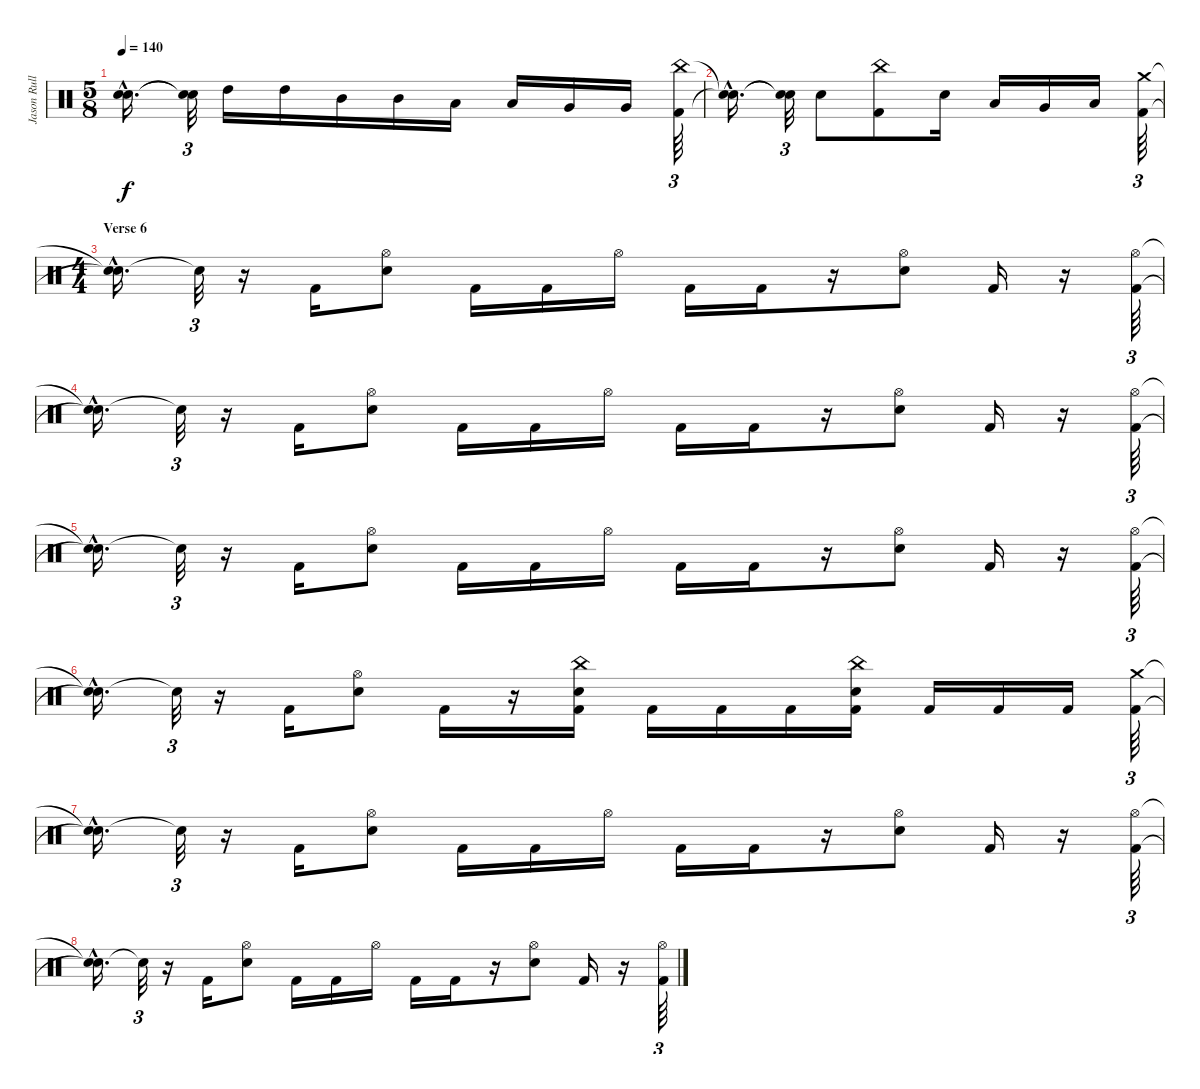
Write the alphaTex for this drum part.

\track ("Jason Rullo" "Jason Rull") {instrument percussion}
\staff {score}
\articulation defaults
\ts (5 8)
\tempo 140
\clef neutral
\ks c
("Snare (hit)"{hac t} "Snare (hit)"{hac t}).16{d dy f} ("Snare (hit)"{t} "Snare (hit)"{t}).32{tu (3 2)} "High Tom (hit)".16 "High Tom (hit)".16 "Mid Tom (hit)".16 "Mid Tom (hit)".16 "Low Tom (hit)".16 "Low Tom (hit)".16 "Very Low Tom (hit)".16 "Very Low Tom (hit)".16 ("China (hit)" "Kick (hit) 2").64{tu (3 2)} |
("Snare (hit)"{hac t} "Snare (hit)"{hac t}).16{d} ("Snare (hit)"{t} "Snare (hit)"{t}).32{tu (3 2)} "Electric Snare (hit)".8 ("China (hit)" "Kick (hit) 2").8 "Electric Snare (hit)".16 "Low Tom (hit)".16 "Very Low Tom (hit)".16 "Low Floor Tom (hit)".16 ("Crash medium (hit)" "Kick (hit) 2").64{tu (3 2)} |
\ts (4 4)
\section ("" "Verse 6")
("Snare (hit)"{hac t} "Snare (hit)"{hac t}).16{d} "Snare (hit)"{t}.32{tu (3 2)} r.16 "Kick (hit) 2".16 ("Hi-Hat (open)" "Electric Snare (hit)").8 "Kick (hit) 2".16 "Kick (hit) 2".16 "Hi-Hat (open)".16 "Kick (hit) 2".16 "Kick (hit) 2".16 r.16 ("Hi-Hat (open)" "Electric Snare (hit)").8 "Kick (hit) 2".16 r.16 ("Hi-Hat (open)" "Kick (hit) 2").64{tu (3 2)} |
("Snare (hit)"{hac t} "Snare (hit)"{hac t}).16{d} "Snare (hit)"{t}.32{tu (3 2)} r.16 "Kick (hit) 2".16 ("Hi-Hat (open)" "Electric Snare (hit)").8 "Kick (hit) 2".16 "Kick (hit) 2".16 "Hi-Hat (open)".16 "Kick (hit) 2".16 "Kick (hit) 2".16 r.16 ("Hi-Hat (open)" "Electric Snare (hit)").8 "Kick (hit) 2".16 r.16 ("Hi-Hat (open)" "Kick (hit) 2").64{tu (3 2)} |
("Snare (hit)"{hac t} "Snare (hit)"{hac t}).16{d} "Snare (hit)"{t}.32{tu (3 2)} r.16 "Kick (hit) 2".16 ("Hi-Hat (open)" "Electric Snare (hit)").8 "Kick (hit) 2".16 "Kick (hit) 2".16 "Hi-Hat (open)".16 "Kick (hit) 2".16 "Kick (hit) 2".16 r.16 ("Hi-Hat (open)" "Electric Snare (hit)").8 "Kick (hit) 2".16 r.16 ("Hi-Hat (open)" "Kick (hit) 2").64{tu (3 2)} |
("Snare (hit)"{hac t} "Snare (hit)"{hac t}).16{d} "Snare (hit)"{t}.32{tu (3 2)} r.16 "Kick (hit) 2".16 ("Hi-Hat (open)" "Electric Snare (hit)").8 "Kick (hit) 2".16 r.16 ("China (hit)" "Electric Snare (hit)" "Kick (hit) 2").16 "Kick (hit) 2".16 "Kick (hit) 2".16 "Kick (hit) 2".16 ("Kick (hit) 2" "China (hit)" "Electric Snare (hit)").16 "Kick (hit) 2".16 "Kick (hit) 2".16 "Kick (hit) 2".16 ("Crash medium (hit)" "Kick (hit) 2").64{tu (3 2)} |
("Snare (hit)"{hac t} "Snare (hit)"{hac t}).16{d} "Snare (hit)"{t}.32{tu (3 2)} r.16 "Kick (hit) 2".16 ("Hi-Hat (open)" "Electric Snare (hit)").8 "Kick (hit) 2".16 "Kick (hit) 2".16 "Hi-Hat (open)".16 "Kick (hit) 2".16 "Kick (hit) 2".16 r.16 ("Hi-Hat (open)" "Electric Snare (hit)").8 "Kick (hit) 2".16 r.16 ("Hi-Hat (open)" "Kick (hit) 2").64{tu (3 2)} |
("Snare (hit)"{hac t} "Snare (hit)"{hac t}).16{d} "Snare (hit)"{t}.32{tu (3 2)} r.16 "Kick (hit) 2".16 ("Hi-Hat (open)" "Electric Snare (hit)").8 "Kick (hit) 2".16 "Kick (hit) 2".16 "Hi-Hat (open)".16 "Kick (hit) 2".16 "Kick (hit) 2".16 r.16 ("Hi-Hat (open)" "Electric Snare (hit)").8 "Kick (hit) 2".16 r.16 ("Hi-Hat (open)" "Kick (hit) 2").64{tu (3 2)}
